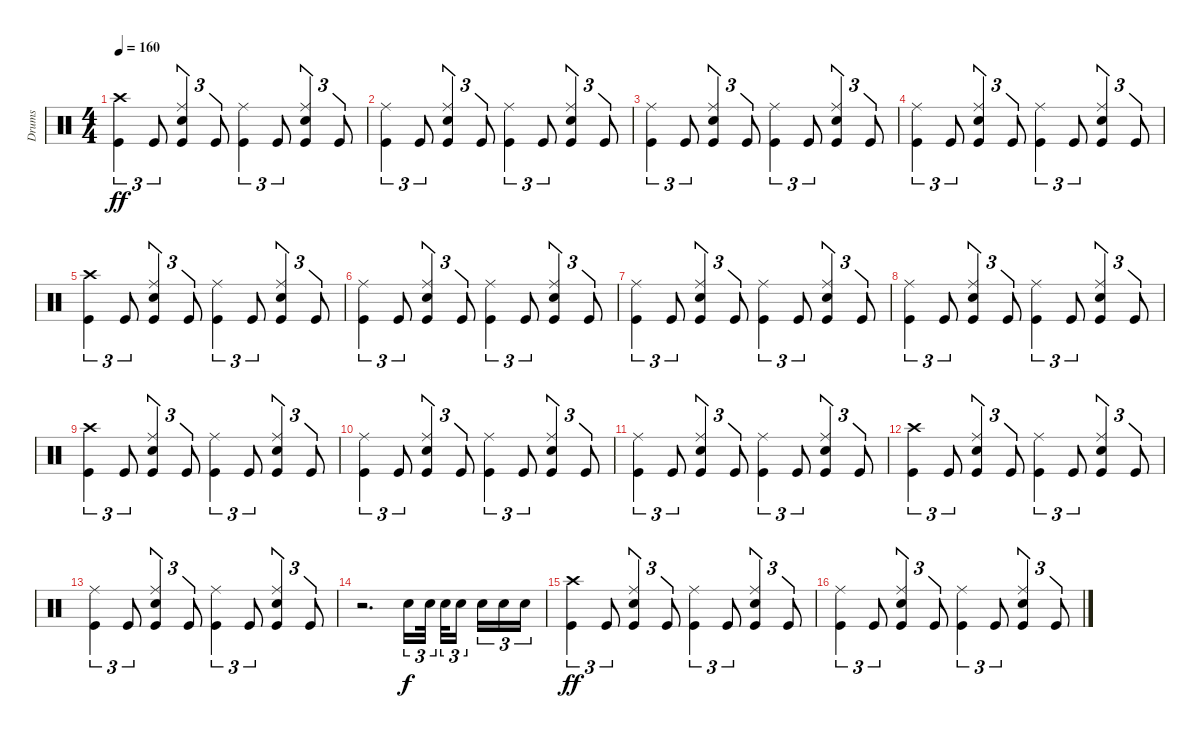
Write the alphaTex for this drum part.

\track ("Drums" "Drums") {instrument percussion}
\staff {score}
\articulation defaults
\ts (4 4)
\tempo 160
\clef neutral
\ks c
("Crash high (hit)" "Kick (hit)").4{tu (3 2) dy ff} "Kick (hit)".8{tu (3 2)} ("Ride (middle)" "Electric Snare (hit)" "Kick (hit)").4{tu (3 2)} "Kick (hit)".8{tu (3 2)} ("Ride (middle)" "Kick (hit)").4{tu (3 2)} "Kick (hit)".8{tu (3 2)} ("Ride (middle)" "Electric Snare (hit)" "Kick (hit)").4{tu (3 2)} "Kick (hit)".8{tu (3 2)} |
("Ride (middle)" "Kick (hit)").4{tu (3 2)} "Kick (hit)".8{tu (3 2)} ("Ride (middle)" "Electric Snare (hit)" "Kick (hit)").4{tu (3 2)} "Kick (hit)".8{tu (3 2)} ("Ride (middle)" "Kick (hit)").4{tu (3 2)} "Kick (hit)".8{tu (3 2)} ("Ride (middle)" "Electric Snare (hit)" "Kick (hit)").4{tu (3 2)} "Kick (hit)".8{tu (3 2)} |
("Ride (middle)" "Kick (hit)").4{tu (3 2)} "Kick (hit)".8{tu (3 2)} ("Ride (middle)" "Electric Snare (hit)" "Kick (hit)").4{tu (3 2)} "Kick (hit)".8{tu (3 2)} ("Ride (middle)" "Kick (hit)").4{tu (3 2)} "Kick (hit)".8{tu (3 2)} ("Ride (middle)" "Electric Snare (hit)" "Kick (hit)").4{tu (3 2)} "Kick (hit)".8{tu (3 2)} |
("Ride (middle)" "Kick (hit)").4{tu (3 2)} "Kick (hit)".8{tu (3 2)} ("Ride (middle)" "Electric Snare (hit)" "Kick (hit)").4{tu (3 2)} "Kick (hit)".8{tu (3 2)} ("Ride (middle)" "Kick (hit)").4{tu (3 2)} "Kick (hit)".8{tu (3 2)} ("Ride (middle)" "Electric Snare (hit)" "Kick (hit)").4{tu (3 2)} "Kick (hit)".8{tu (3 2)} |
("Crash high (hit)" "Kick (hit)").4{tu (3 2)} "Kick (hit)".8{tu (3 2)} ("Ride (middle)" "Electric Snare (hit)" "Kick (hit)").4{tu (3 2)} "Kick (hit)".8{tu (3 2)} ("Ride (middle)" "Kick (hit)").4{tu (3 2)} "Kick (hit)".8{tu (3 2)} ("Ride (middle)" "Electric Snare (hit)" "Kick (hit)").4{tu (3 2)} "Kick (hit)".8{tu (3 2)} |
("Ride (middle)" "Kick (hit)").4{tu (3 2)} "Kick (hit)".8{tu (3 2)} ("Ride (middle)" "Electric Snare (hit)" "Kick (hit)").4{tu (3 2)} "Kick (hit)".8{tu (3 2)} ("Ride (middle)" "Kick (hit)").4{tu (3 2)} "Kick (hit)".8{tu (3 2)} ("Ride (middle)" "Electric Snare (hit)" "Kick (hit)").4{tu (3 2)} "Kick (hit)".8{tu (3 2)} |
("Ride (middle)" "Kick (hit)").4{tu (3 2)} "Kick (hit)".8{tu (3 2)} ("Ride (middle)" "Electric Snare (hit)" "Kick (hit)").4{tu (3 2)} "Kick (hit)".8{tu (3 2)} ("Ride (middle)" "Kick (hit)").4{tu (3 2)} "Kick (hit)".8{tu (3 2)} ("Ride (middle)" "Electric Snare (hit)" "Kick (hit)").4{tu (3 2)} "Kick (hit)".8{tu (3 2)} |
("Ride (middle)" "Kick (hit)").4{tu (3 2)} "Kick (hit)".8{tu (3 2)} ("Ride (middle)" "Electric Snare (hit)" "Kick (hit)").4{tu (3 2)} "Kick (hit)".8{tu (3 2)} ("Ride (middle)" "Kick (hit)").4{tu (3 2)} "Kick (hit)".8{tu (3 2)} ("Ride (middle)" "Electric Snare (hit)" "Kick (hit)").4{tu (3 2)} "Kick (hit)".8{tu (3 2)} |
("Crash high (hit)" "Kick (hit)").4{tu (3 2)} "Kick (hit)".8{tu (3 2)} ("Ride (middle)" "Electric Snare (hit)" "Kick (hit)").4{tu (3 2)} "Kick (hit)".8{tu (3 2)} ("Ride (middle)" "Kick (hit)").4{tu (3 2)} "Kick (hit)".8{tu (3 2)} ("Ride (middle)" "Electric Snare (hit)" "Kick (hit)").4{tu (3 2)} "Kick (hit)".8{tu (3 2)} |
("Ride (middle)" "Kick (hit)").4{tu (3 2)} "Kick (hit)".8{tu (3 2)} ("Ride (middle)" "Electric Snare (hit)" "Kick (hit)").4{tu (3 2)} "Kick (hit)".8{tu (3 2)} ("Ride (middle)" "Kick (hit)").4{tu (3 2)} "Kick (hit)".8{tu (3 2)} ("Ride (middle)" "Electric Snare (hit)" "Kick (hit)").4{tu (3 2)} "Kick (hit)".8{tu (3 2)} |
("Ride (middle)" "Kick (hit)").4{tu (3 2)} "Kick (hit)".8{tu (3 2)} ("Ride (middle)" "Electric Snare (hit)" "Kick (hit)").4{tu (3 2)} "Kick (hit)".8{tu (3 2)} ("Ride (middle)" "Kick (hit)").4{tu (3 2)} "Kick (hit)".8{tu (3 2)} ("Ride (middle)" "Electric Snare (hit)" "Kick (hit)").4{tu (3 2)} "Kick (hit)".8{tu (3 2)} |
("Crash high (hit)" "Kick (hit)").4{tu (3 2)} "Kick (hit)".8{tu (3 2)} ("Ride (middle)" "Electric Snare (hit)" "Kick (hit)").4{tu (3 2)} "Kick (hit)".8{tu (3 2)} ("Ride (middle)" "Kick (hit)").4{tu (3 2)} "Kick (hit)".8{tu (3 2)} ("Ride (middle)" "Electric Snare (hit)" "Kick (hit)").4{tu (3 2)} "Kick (hit)".8{tu (3 2)} |
("Ride (middle)" "Kick (hit)").4{tu (3 2)} "Kick (hit)".8{tu (3 2)} ("Ride (middle)" "Electric Snare (hit)" "Kick (hit)").4{tu (3 2)} "Kick (hit)".8{tu (3 2)} ("Ride (middle)" "Kick (hit)").4{tu (3 2)} "Kick (hit)".8{tu (3 2)} ("Ride (middle)" "Electric Snare (hit)" "Kick (hit)").4{tu (3 2)} "Kick (hit)".8{tu (3 2)} |
r.2{d} "Electric Snare (hit)".16{tu (3 2) dy f} "Electric Snare (hit)".32{tu (3 2) beam splitsecondary} "Electric Snare (hit)".32{tu (3 2)} "Electric Snare (hit)".16{tu (3 2) beam splitsecondary} "Electric Snare (hit)".16{tu (3 2)} "Electric Snare (hit)".16{tu (3 2)} "Electric Snare (hit)".16{tu (3 2)} |
("Crash high (hit)" "Kick (hit)").4{tu (3 2) dy ff} "Kick (hit)".8{tu (3 2)} ("Ride (middle)" "Electric Snare (hit)" "Kick (hit)").4{tu (3 2)} "Kick (hit)".8{tu (3 2)} ("Ride (middle)" "Kick (hit)").4{tu (3 2)} "Kick (hit)".8{tu (3 2)} ("Ride (middle)" "Electric Snare (hit)" "Kick (hit)").4{tu (3 2)} "Kick (hit)".8{tu (3 2)} |
("Ride (middle)" "Kick (hit)").4{tu (3 2)} "Kick (hit)".8{tu (3 2)} ("Ride (middle)" "Electric Snare (hit)" "Kick (hit)").4{tu (3 2)} "Kick (hit)".8{tu (3 2)} ("Ride (middle)" "Kick (hit)").4{tu (3 2)} "Kick (hit)".8{tu (3 2)} ("Ride (middle)" "Electric Snare (hit)" "Kick (hit)").4{tu (3 2)} "Kick (hit)".8{tu (3 2)}
